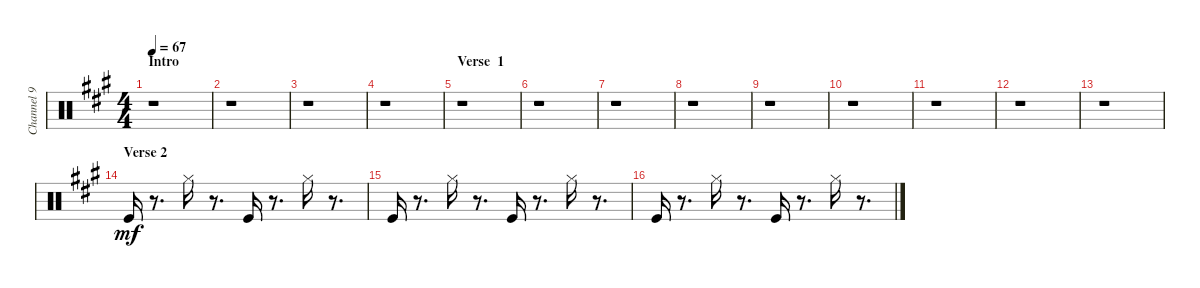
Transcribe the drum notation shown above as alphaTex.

\track ("Channel 9" "Channel 9") {instrument percussion}
\staff {score}
\articulation defaults
\ts (4 4)
\section ("" "Intro")
\tempo 67
\clef neutral
\ks f#minor
r.1{dy mf} |
r.1 |
r.1 |
r.1 |
\section ("" "Verse  1")
r.1 |
r.1 |
r.1 |
r.1 |
r.1 |
r.1 |
r.1 |
r.1 |
r.1 |
\section ("" "Verse 2")
"Kick (hit)".16 r.8{d} "Hi-Hat (closed)".16 r.8{d} "Kick (hit)".16 r.8{d} "Hi-Hat (closed)".16 r.8{d} |
"Kick (hit)".16 r.8{d} "Hi-Hat (closed)".16 r.8{d} "Kick (hit)".16 r.8{d} "Hi-Hat (closed)".16 r.8{d} |
"Kick (hit)".16 r.8{d} "Hi-Hat (closed)".16 r.8{d} "Kick (hit)".16 r.8{d} "Hi-Hat (closed)".16 r.8{d}
